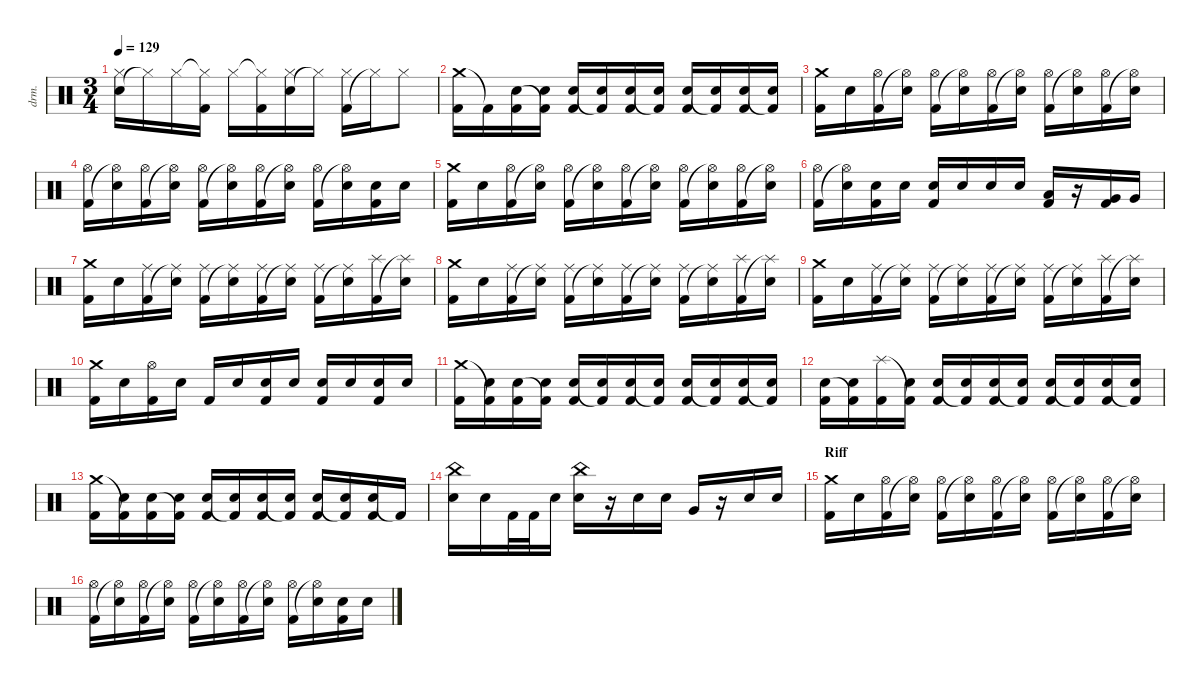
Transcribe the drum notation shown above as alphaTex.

\defaultSystemsLayout 4
\hideDynamics
\bracketExtendMode nobrackets
\otherSystemsTrackNameOrientation horizontal
\track ("Drumkit" "drm.") {instrument percussion}
\staff {score}
\articulation defaults
\ts (3 4)
\tempo 129
\clef neutral
\ks c
("Snare (hit) 2" "Hi-Hat (closed)"{acc #}).16{dy fff} "Hi-Hat (closed)"{t acc #}.16 "Hi-Hat (closed)"{acc #}.16 ("Hi-Hat (closed)"{t acc #} "Kick (hit) 2").16 "Hi-Hat (closed)"{acc #}.16 ("Hi-Hat (closed)"{t acc #} "Kick (hit) 2").16 ("Snare (hit) 2" "Hi-Hat (closed)"{acc #}).16 "Hi-Hat (closed)"{t acc #}.16 ("Kick (hit) 2" "Hi-Hat (closed)"{acc #}).16 "Hi-Hat (closed)"{t acc #}.16 "Hi-Hat (closed)"{acc #}.8 |
("Crash medium (hit)" "Kick (hit) 2").16 "Kick (hit) 2"{t}.16 ("Snare (hit) 2" "Kick (hit) 2").16 ("Kick (hit) 2"{t} "Snare (hit) 2").16 ("Snare (hit) 2" "Kick (hit) 2").16 ("Kick (hit) 2"{t} "Snare (hit) 2").16 ("Snare (hit) 2" "Kick (hit) 2").16 ("Kick (hit) 2"{t} "Snare (hit) 2").16 ("Snare (hit) 2" "Kick (hit) 2").16 ("Kick (hit) 2"{t} "Snare (hit) 2").16 ("Snare (hit) 2" "Kick (hit) 2").16 ("Kick (hit) 2"{t} "Snare (hit) 2").16 |
("Kick (hit) 2" "Crash medium (hit)").16 "Snare (hit) 2".16 ("Kick (hit) 2" "Hi-Hat (open)"{acc #}).16 ("Hi-Hat (open)"{t acc #} "Snare (hit) 2").16 ("Kick (hit) 2" "Hi-Hat (open)"{acc #}).16 ("Hi-Hat (open)"{t acc #} "Snare (hit) 2").16 ("Kick (hit) 2" "Hi-Hat (open)"{acc #}).16 ("Hi-Hat (open)"{t acc #} "Snare (hit) 2").16 ("Kick (hit) 2" "Hi-Hat (open)"{acc #}).16 ("Hi-Hat (open)"{t acc #} "Snare (hit) 2").16 ("Kick (hit) 2" "Hi-Hat (open)"{acc #}).16 ("Hi-Hat (open)"{t acc #} "Snare (hit) 2").16 |
("Kick (hit) 2" "Hi-Hat (open)"{acc #}).16 ("Hi-Hat (open)"{t acc #} "Snare (hit) 2").16 ("Kick (hit) 2" "Hi-Hat (open)"{acc #}).16 ("Hi-Hat (open)"{t acc #} "Snare (hit) 2").16 ("Kick (hit) 2" "Hi-Hat (open)"{acc #}).16 ("Hi-Hat (open)"{t acc #} "Snare (hit) 2").16 ("Kick (hit) 2" "Hi-Hat (open)"{acc #}).16 ("Hi-Hat (open)"{t acc #} "Snare (hit) 2").16 ("Kick (hit) 2" "Hi-Hat (open)"{acc #}).16 ("Hi-Hat (open)"{t acc #} "Snare (hit) 2").16 ("Kick (hit) 2" "Snare (hit) 2").16 "Snare (hit) 2".16 |
("Kick (hit) 2" "Crash medium (hit)").16 "Snare (hit) 2".16 ("Kick (hit) 2" "Hi-Hat (open)"{acc #}).16 ("Hi-Hat (open)"{t acc #} "Snare (hit) 2").16 ("Kick (hit) 2" "Hi-Hat (open)"{acc #}).16 ("Hi-Hat (open)"{t acc #} "Snare (hit) 2").16 ("Kick (hit) 2" "Hi-Hat (open)"{acc #}).16 ("Hi-Hat (open)"{t acc #} "Snare (hit) 2").16 ("Kick (hit) 2" "Hi-Hat (open)"{acc #}).16 ("Hi-Hat (open)"{t acc #} "Snare (hit) 2").16 ("Kick (hit) 2" "Hi-Hat (open)"{acc #}).16 ("Hi-Hat (open)"{t acc #} "Snare (hit) 2").16 |
("Kick (hit) 2" "Hi-Hat (open)"{acc #}).16 ("Hi-Hat (open)"{t acc #} "Snare (hit) 2").16 ("Kick (hit) 2" "Snare (hit) 2").16 "Snare (hit) 2".16 ("Kick (hit) 2" "Snare (hit) 2").16 "Snare (hit) 2".16 "Snare (hit) 2".16 "Snare (hit) 2".16 ("Kick (hit) 2" "Low Tom (hit)").16 r.16 ("Kick (hit) 2" "Very Low Tom (hit)").16 "Very Low Tom (hit)".16 |
("Kick (hit) 2" "Crash medium (hit)").16 "Snare (hit) 2".16 ("Kick (hit) 2" "Ride (middle)"{acc #}).16 ("Ride (middle)"{t acc #} "Snare (hit) 2").16 ("Kick (hit) 2" "Ride (middle)"{acc #}).16 ("Ride (middle)"{t acc #} "Snare (hit) 2").16 ("Kick (hit) 2" "Ride (middle)"{acc #}).16 ("Ride (middle)"{t acc #} "Snare (hit) 2").16 ("Kick (hit) 2" "Ride (middle)"{acc #}).16 ("Ride (middle)"{t acc #} "Snare (hit) 2").16 ("Kick (hit) 2" "Splash (hit)").16 ("Splash (hit)"{t} "Snare (hit) 2").16 |
("Kick (hit) 2" "Crash medium (hit)").16 "Snare (hit) 2".16 ("Kick (hit) 2" "Ride (middle)"{acc #}).16 ("Ride (middle)"{t acc #} "Snare (hit) 2").16 ("Kick (hit) 2" "Ride (middle)"{acc #}).16 ("Ride (middle)"{t acc #} "Snare (hit) 2").16 ("Kick (hit) 2" "Ride (middle)"{acc #}).16 ("Ride (middle)"{t acc #} "Snare (hit) 2").16 ("Kick (hit) 2" "Ride (middle)"{acc #}).16 ("Ride (middle)"{t acc #} "Snare (hit) 2").16 ("Kick (hit) 2" "Splash (hit)").16 ("Splash (hit)"{t} "Snare (hit) 2").16 |
("Kick (hit) 2" "Crash medium (hit)").16 "Snare (hit) 2".16 ("Kick (hit) 2" "Ride (middle)"{acc #}).16 ("Ride (middle)"{t acc #} "Snare (hit) 2").16 ("Kick (hit) 2" "Ride (middle)"{acc #}).16 ("Ride (middle)"{t acc #} "Snare (hit) 2").16 ("Kick (hit) 2" "Ride (middle)"{acc #}).16 ("Ride (middle)"{t acc #} "Snare (hit) 2").16 ("Kick (hit) 2" "Ride (middle)"{acc #}).16 ("Ride (middle)"{t acc #} "Snare (hit) 2").16 ("Kick (hit) 2" "Splash (hit)").16 ("Splash (hit)"{t} "Snare (hit) 2").16 |
("Kick (hit) 2" "Crash medium (hit)").16 "Snare (hit) 2".16 ("Kick (hit) 2" "Hi-Hat (open)"{acc #}).16 "Snare (hit) 2".16 "Kick (hit) 2".16 "Snare (hit) 2".16 ("Kick (hit) 2" "Snare (hit) 2").16 "Snare (hit) 2".16 ("Kick (hit) 2" "Snare (hit) 2").16 "Snare (hit) 2".16 ("Kick (hit) 2" "Snare (hit) 2").16 "Snare (hit) 2".16 |
("Crash medium (hit)" "Kick (hit) 2").16 ("Kick (hit) 2"{t} "Snare (hit) 2").16 ("Snare (hit) 2" "Kick (hit) 2").16 ("Kick (hit) 2"{t} "Snare (hit) 2").16 ("Snare (hit) 2" "Kick (hit) 2").16 ("Kick (hit) 2"{t} "Snare (hit) 2").16 ("Snare (hit) 2" "Kick (hit) 2").16 ("Kick (hit) 2"{t} "Snare (hit) 2").16 ("Snare (hit) 2" "Kick (hit) 2").16 ("Kick (hit) 2"{t} "Snare (hit) 2").16 ("Snare (hit) 2" "Kick (hit) 2").16 ("Kick (hit) 2"{t} "Snare (hit) 2").16 |
("Snare (hit) 2" "Kick (hit) 2").16 ("Kick (hit) 2"{t} "Snare (hit) 2").16 ("Splash (hit)" "Kick (hit) 2").16 ("Kick (hit) 2"{t} "Snare (hit) 2").16 ("Snare (hit) 2" "Kick (hit) 2").16 ("Kick (hit) 2"{t} "Snare (hit) 2").16 ("Snare (hit) 2" "Kick (hit) 2").16 ("Kick (hit) 2"{t} "Snare (hit) 2").16 ("Snare (hit) 2" "Kick (hit) 2").16 ("Kick (hit) 2"{t} "Snare (hit) 2").16 ("Snare (hit) 2" "Kick (hit) 2").16 ("Kick (hit) 2"{t} "Snare (hit) 2").16 |
("Crash medium (hit)" "Kick (hit) 2").16 ("Kick (hit) 2"{t} "Snare (hit) 2").16 ("Snare (hit) 2" "Kick (hit) 2").16 ("Kick (hit) 2"{t} "Snare (hit) 2").16 ("Snare (hit) 2" "Kick (hit) 2").16 ("Kick (hit) 2"{t} "Snare (hit) 2").16 ("Snare (hit) 2" "Kick (hit) 2").16 ("Kick (hit) 2"{t} "Snare (hit) 2").16 ("Snare (hit) 2" "Kick (hit) 2").16 ("Kick (hit) 2"{t} "Snare (hit) 2").16 ("Snare (hit) 2" "Kick (hit) 2").16 "Kick (hit) 2"{t}.16 |
("Snare (hit) 2" "China (hit)").16 "Snare (hit) 2".16 "Kick (hit) 2".32 "Kick (hit) 2".32 "Snare (hit) 2".16 ("Snare (hit) 2" "China (hit)").16 r.16 "Snare (hit) 2".16 "Snare (hit) 2".16 "Very Low Tom (hit)".16 r.16 "Snare (hit) 2".16 "Snare (hit) 2".16 |
\section ("" "Riff")
("Kick (hit) 2" "Crash medium (hit)").16 "Snare (hit) 2".16 ("Kick (hit) 2" "Hi-Hat (open)"{acc #}).16 ("Hi-Hat (open)"{t acc #} "Snare (hit) 2").16 ("Kick (hit) 2" "Hi-Hat (open)"{acc #}).16 ("Hi-Hat (open)"{t acc #} "Snare (hit) 2").16 ("Kick (hit) 2" "Hi-Hat (open)"{acc #}).16 ("Hi-Hat (open)"{t acc #} "Snare (hit) 2").16 ("Kick (hit) 2" "Hi-Hat (open)"{acc #}).16 ("Hi-Hat (open)"{t acc #} "Snare (hit) 2").16 ("Kick (hit) 2" "Hi-Hat (open)"{acc #}).16 ("Hi-Hat (open)"{t acc #} "Snare (hit) 2").16 |
("Kick (hit) 2" "Hi-Hat (open)"{acc #}).16 ("Hi-Hat (open)"{t acc #} "Snare (hit) 2").16 ("Kick (hit) 2" "Hi-Hat (open)"{acc #}).16 ("Hi-Hat (open)"{t acc #} "Snare (hit) 2").16 ("Kick (hit) 2" "Hi-Hat (open)"{acc #}).16 ("Hi-Hat (open)"{t acc #} "Snare (hit) 2").16 ("Kick (hit) 2" "Hi-Hat (open)"{acc #}).16 ("Hi-Hat (open)"{t acc #} "Snare (hit) 2").16 ("Kick (hit) 2" "Hi-Hat (open)"{acc #}).16 ("Hi-Hat (open)"{t acc #} "Snare (hit) 2").16 ("Kick (hit) 2" "Snare (hit) 2").16 "Snare (hit) 2".16
